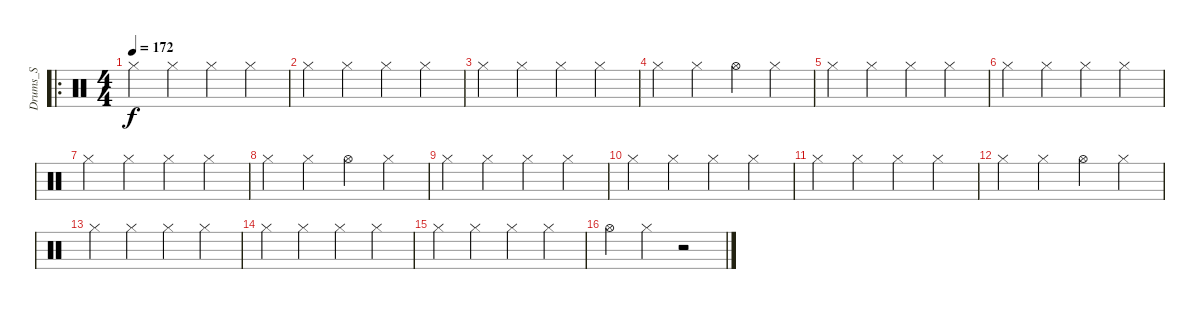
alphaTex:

\track ("Drums_S" "Drums_S") {instrument percussion}
\staff {score}
\articulation defaults
\ro
\ts (4 4)
\tempo 172
\clef neutral
\ks c "Hi-Hat (closed)".4{dy f} "Hi-Hat (closed)".4 "Hi-Hat (closed)".4 "Hi-Hat (closed)".4
|
"Hi-Hat (closed)".4 "Hi-Hat (closed)".4 "Hi-Hat (closed)".4 "Hi-Hat (closed)".4 |
"Hi-Hat (closed)".4 "Hi-Hat (closed)".4 "Hi-Hat (closed)".4 "Hi-Hat (closed)".4 |
"Hi-Hat (closed)".4 "Hi-Hat (closed)".4 "Hi-Hat (open)".4 "Hi-Hat (closed)".4 |
"Hi-Hat (closed)".4 "Hi-Hat (closed)".4 "Hi-Hat (closed)".4 "Hi-Hat (closed)".4 |
"Hi-Hat (closed)".4 "Hi-Hat (closed)".4 "Hi-Hat (closed)".4 "Hi-Hat (closed)".4 |
"Hi-Hat (closed)".4 "Hi-Hat (closed)".4 "Hi-Hat (closed)".4 "Hi-Hat (closed)".4 |
"Hi-Hat (closed)".4 "Hi-Hat (closed)".4 "Hi-Hat (open)".4 "Hi-Hat (closed)".4 |
"Hi-Hat (closed)".4 "Hi-Hat (closed)".4 "Hi-Hat (closed)".4 "Hi-Hat (closed)".4 |
"Hi-Hat (closed)".4 "Hi-Hat (closed)".4 "Hi-Hat (closed)".4 "Hi-Hat (closed)".4 |
"Hi-Hat (closed)".4 "Hi-Hat (closed)".4 "Hi-Hat (closed)".4 "Hi-Hat (closed)".4 |
"Hi-Hat (closed)".4 "Hi-Hat (closed)".4 "Hi-Hat (open)".4 "Hi-Hat (closed)".4 |
"Hi-Hat (closed)".4 "Hi-Hat (closed)".4 "Hi-Hat (closed)".4 "Hi-Hat (closed)".4 |
"Hi-Hat (closed)".4 "Hi-Hat (closed)".4 "Hi-Hat (closed)".4 "Hi-Hat (closed)".4 |
"Hi-Hat (closed)".4 "Hi-Hat (closed)".4 "Hi-Hat (closed)".4 "Hi-Hat (closed)".4 |
"Hi-Hat (open)".4 "Hi-Hat (closed)".4 r.2
